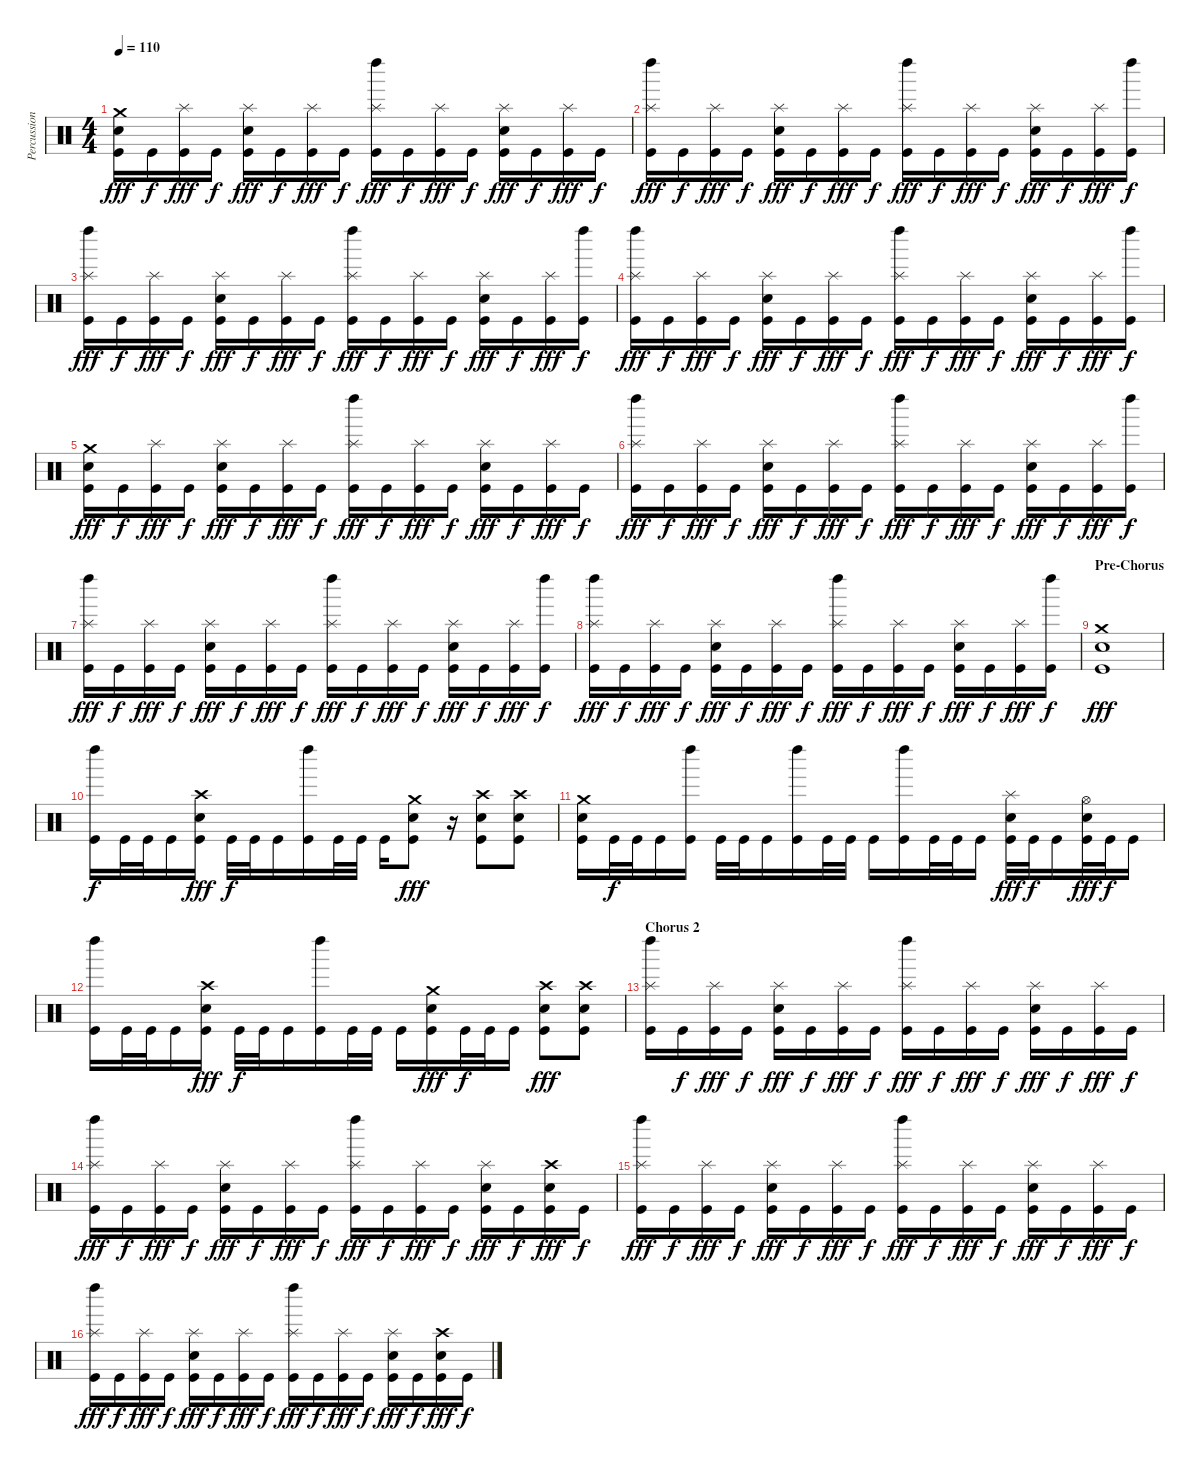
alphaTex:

\track ("Percussions" "Percussion") {instrument percussion}
\staff {score}
\articulation defaults
\ts (4 4)
\tempo 110
\clef neutral
\ks c
("Kick (hit)" "Electric Snare (hit)" "Crash medium (hit)").16{dy fff} "Kick (hit)".16{dy f} ("Kick (hit)" "Splash (hit)").16{dy fff} "Kick (hit)".16{dy f} ("Kick (hit)" "Electric Snare (hit)" "Splash (hit)").16{dy fff} "Kick (hit)".16{dy f} ("Kick (hit)" "Splash (hit)").16{dy fff} "Kick (hit)".16{dy f} ("Kick (hit)" "Left Maraca (hit)" "Splash (hit)").16{dy fff} "Kick (hit)".16{dy f} ("Kick (hit)" "Splash (hit)").16{dy fff} "Kick (hit)".16{dy f} ("Kick (hit)" "Electric Snare (hit)" "Splash (hit)").16{dy fff} "Kick (hit)".16{dy f} ("Kick (hit)" "Splash (hit)").16{dy fff} "Kick (hit)".16{dy f} |
("Kick (hit)" "Left Maraca (hit)" "Splash (hit)").16{dy fff} "Kick (hit)".16{dy f} ("Kick (hit)" "Splash (hit)").16{dy fff} "Kick (hit)".16{dy f} ("Kick (hit)" "Electric Snare (hit)" "Splash (hit)").16{dy fff} "Kick (hit)".16{dy f} ("Kick (hit)" "Splash (hit)").16{dy fff} "Kick (hit)".16{dy f} ("Kick (hit)" "Left Maraca (hit)" "Splash (hit)").16{dy fff} "Kick (hit)".16{dy f} ("Kick (hit)" "Splash (hit)").16{dy fff} "Kick (hit)".16{dy f} ("Kick (hit)" "Electric Snare (hit)" "Splash (hit)").16{dy fff} "Kick (hit)".16{dy f} ("Kick (hit)" "Splash (hit)").16{dy fff} ("Kick (hit)" "Left Maraca (hit)").16{dy f} |
("Kick (hit)" "Left Maraca (hit)" "Splash (hit)").16{dy fff} "Kick (hit)".16{dy f} ("Kick (hit)" "Splash (hit)").16{dy fff} "Kick (hit)".16{dy f} ("Kick (hit)" "Electric Snare (hit)" "Splash (hit)").16{dy fff} "Kick (hit)".16{dy f} ("Kick (hit)" "Splash (hit)").16{dy fff} "Kick (hit)".16{dy f} ("Kick (hit)" "Left Maraca (hit)" "Splash (hit)").16{dy fff} "Kick (hit)".16{dy f} ("Kick (hit)" "Splash (hit)").16{dy fff} "Kick (hit)".16{dy f} ("Kick (hit)" "Electric Snare (hit)" "Splash (hit)").16{dy fff} "Kick (hit)".16{dy f} ("Kick (hit)" "Splash (hit)").16{dy fff} ("Kick (hit)" "Left Maraca (hit)").16{dy f} |
("Kick (hit)" "Left Maraca (hit)" "Splash (hit)").16{dy fff} "Kick (hit)".16{dy f} ("Kick (hit)" "Splash (hit)").16{dy fff} "Kick (hit)".16{dy f} ("Kick (hit)" "Electric Snare (hit)" "Splash (hit)").16{dy fff} "Kick (hit)".16{dy f} ("Kick (hit)" "Splash (hit)").16{dy fff} "Kick (hit)".16{dy f} ("Kick (hit)" "Left Maraca (hit)" "Splash (hit)").16{dy fff} "Kick (hit)".16{dy f} ("Kick (hit)" "Splash (hit)").16{dy fff} "Kick (hit)".16{dy f} ("Kick (hit)" "Electric Snare (hit)" "Splash (hit)").16{dy fff} "Kick (hit)".16{dy f} ("Kick (hit)" "Splash (hit)").16{dy fff} ("Kick (hit)" "Left Maraca (hit)").16{dy f} |
("Kick (hit)" "Electric Snare (hit)" "Crash medium (hit)").16{dy fff} "Kick (hit)".16{dy f} ("Kick (hit)" "Splash (hit)").16{dy fff} "Kick (hit)".16{dy f} ("Kick (hit)" "Electric Snare (hit)" "Splash (hit)").16{dy fff} "Kick (hit)".16{dy f} ("Kick (hit)" "Splash (hit)").16{dy fff} "Kick (hit)".16{dy f} ("Kick (hit)" "Left Maraca (hit)" "Splash (hit)").16{dy fff} "Kick (hit)".16{dy f} ("Kick (hit)" "Splash (hit)").16{dy fff} "Kick (hit)".16{dy f} ("Kick (hit)" "Electric Snare (hit)" "Splash (hit)").16{dy fff} "Kick (hit)".16{dy f} ("Kick (hit)" "Splash (hit)").16{dy fff} "Kick (hit)".16{dy f} |
("Kick (hit)" "Left Maraca (hit)" "Splash (hit)").16{dy fff} "Kick (hit)".16{dy f} ("Kick (hit)" "Splash (hit)").16{dy fff} "Kick (hit)".16{dy f} ("Kick (hit)" "Electric Snare (hit)" "Splash (hit)").16{dy fff} "Kick (hit)".16{dy f} ("Kick (hit)" "Splash (hit)").16{dy fff} "Kick (hit)".16{dy f} ("Kick (hit)" "Left Maraca (hit)" "Splash (hit)").16{dy fff} "Kick (hit)".16{dy f} ("Kick (hit)" "Splash (hit)").16{dy fff} "Kick (hit)".16{dy f} ("Kick (hit)" "Electric Snare (hit)" "Splash (hit)").16{dy fff} "Kick (hit)".16{dy f} ("Kick (hit)" "Splash (hit)").16{dy fff} ("Kick (hit)" "Left Maraca (hit)").16{dy f} |
("Kick (hit)" "Left Maraca (hit)" "Splash (hit)").16{dy fff} "Kick (hit)".16{dy f} ("Kick (hit)" "Splash (hit)").16{dy fff} "Kick (hit)".16{dy f} ("Kick (hit)" "Electric Snare (hit)" "Splash (hit)").16{dy fff} "Kick (hit)".16{dy f} ("Kick (hit)" "Splash (hit)").16{dy fff} "Kick (hit)".16{dy f} ("Kick (hit)" "Left Maraca (hit)" "Splash (hit)").16{dy fff} "Kick (hit)".16{dy f} ("Kick (hit)" "Splash (hit)").16{dy fff} "Kick (hit)".16{dy f} ("Kick (hit)" "Electric Snare (hit)" "Splash (hit)").16{dy fff} "Kick (hit)".16{dy f} ("Kick (hit)" "Splash (hit)").16{dy fff} ("Kick (hit)" "Left Maraca (hit)").16{dy f} |
("Kick (hit)" "Left Maraca (hit)" "Splash (hit)").16{dy fff} "Kick (hit)".16{dy f} ("Kick (hit)" "Splash (hit)").16{dy fff} "Kick (hit)".16{dy f} ("Kick (hit)" "Electric Snare (hit)" "Splash (hit)").16{dy fff} "Kick (hit)".16{dy f} ("Kick (hit)" "Splash (hit)").16{dy fff} "Kick (hit)".16{dy f} ("Kick (hit)" "Left Maraca (hit)" "Splash (hit)").16{dy fff} "Kick (hit)".16{dy f} ("Kick (hit)" "Splash (hit)").16{dy fff} "Kick (hit)".16{dy f} ("Kick (hit)" "Electric Snare (hit)" "Splash (hit)").16{dy fff} "Kick (hit)".16{dy f} ("Kick (hit)" "Splash (hit)").16{dy fff} ("Kick (hit)" "Left Maraca (hit)").16{dy f} |
\section ("" "Pre-Chorus")
("Kick (hit)" "Electric Snare (hit)" "Crash medium (hit)").1{dy fff} |
("Kick (hit)" "Left Maraca (hit)").16{dy f} "Kick (hit)".32 "Kick (hit)".32 "Kick (hit)".16 ("Kick (hit)" "Electric Snare (hit)" "Crash high (hit)").16{dy fff} "Kick (hit)".32{dy f} "Kick (hit)".32 "Kick (hit)".16 ("Kick (hit)" "Left Maraca (hit)").16 "Kick (hit)".32 "Kick (hit)".32 "Kick (hit)".16 ("Kick (hit)" "Electric Snare (hit)" "Crash medium (hit)").8{dy fff} r.16 ("Kick (hit)" "Electric Snare (hit)" "Crash high (hit)").8 ("Kick (hit)" "Electric Snare (hit)" "Crash high (hit)").8 |
("Kick (hit)" "Electric Snare (hit)" "Crash medium (hit)").16 "Kick (hit)".32{dy f} "Kick (hit)".32 "Kick (hit)".16 ("Kick (hit)" "Left Maraca (hit)").16 "Kick (hit)".32 "Kick (hit)".32 "Kick (hit)".16 ("Kick (hit)" "Left Maraca (hit)").16 "Kick (hit)".32 "Kick (hit)".32 "Kick (hit)".16 ("Kick (hit)" "Left Maraca (hit)").16 "Kick (hit)".32 "Kick (hit)".32 "Kick (hit)".16 ("Kick (hit)" "Electric Snare (hit)" "Splash (hit)").32{dy fff} "Kick (hit)".32{dy f} "Kick (hit)".16 ("Kick (hit)" "Electric Snare (hit)" "Hi-Hat (open)").32{dy fff} "Kick (hit)".32{dy f} "Kick (hit)".16 |
("Kick (hit)" "Left Maraca (hit)").16 "Kick (hit)".32 "Kick (hit)".32 "Kick (hit)".16 ("Kick (hit)" "Electric Snare (hit)" "Crash high (hit)").16{dy fff} "Kick (hit)".32{dy f} "Kick (hit)".32 "Kick (hit)".16 ("Kick (hit)" "Left Maraca (hit)").16 "Kick (hit)".32 "Kick (hit)".32 "Kick (hit)".16 ("Kick (hit)" "Electric Snare (hit)" "Crash medium (hit)").16{dy fff} "Kick (hit)".32{dy f} "Kick (hit)".32 "Kick (hit)".16 ("Kick (hit)" "Electric Snare (hit)" "Crash high (hit)").8{dy fff} ("Kick (hit)" "Electric Snare (hit)" "Crash high (hit)").8 |
\section ("" "Chorus 2")
("Kick (hit)" "Splash (hit)" "Left Maraca (hit)").16 "Kick (hit)".16{dy f} ("Kick (hit)" "Splash (hit)").16{dy fff} "Kick (hit)".16{dy f} ("Kick (hit)" "Splash (hit)" "Electric Snare (hit)").16{dy fff} "Kick (hit)".16{dy f} ("Kick (hit)" "Splash (hit)").16{dy fff} "Kick (hit)".16{dy f} ("Kick (hit)" "Splash (hit)" "Left Maraca (hit)").16{dy fff} "Kick (hit)".16{dy f} ("Kick (hit)" "Splash (hit)").16{dy fff} "Kick (hit)".16{dy f} ("Kick (hit)" "Splash (hit)" "Electric Snare (hit)").16{dy fff} "Kick (hit)".16{dy f} ("Kick (hit)" "Splash (hit)").16{dy fff} "Kick (hit)".16{dy f} |
("Kick (hit)" "Splash (hit)" "Left Maraca (hit)").16{dy fff} "Kick (hit)".16{dy f} ("Kick (hit)" "Splash (hit)").16{dy fff} "Kick (hit)".16{dy f} ("Kick (hit)" "Splash (hit)" "Electric Snare (hit)").16{dy fff} "Kick (hit)".16{dy f} ("Kick (hit)" "Splash (hit)").16{dy fff} "Kick (hit)".16{dy f} ("Kick (hit)" "Splash (hit)" "Left Maraca (hit)").16{dy fff} "Kick (hit)".16{dy f} ("Kick (hit)" "Splash (hit)").16{dy fff} "Kick (hit)".16{dy f} ("Kick (hit)" "Splash (hit)" "Electric Snare (hit)").16{dy fff} "Kick (hit)".16{dy f} ("Kick (hit)" "Crash high (hit)" "Electric Snare (hit)").16{dy fff} "Kick (hit)".16{dy f} |
("Kick (hit)" "Splash (hit)" "Left Maraca (hit)").16{dy fff} "Kick (hit)".16{dy f} ("Kick (hit)" "Splash (hit)").16{dy fff} "Kick (hit)".16{dy f} ("Kick (hit)" "Splash (hit)" "Electric Snare (hit)").16{dy fff} "Kick (hit)".16{dy f} ("Kick (hit)" "Splash (hit)").16{dy fff} "Kick (hit)".16{dy f} ("Kick (hit)" "Splash (hit)" "Left Maraca (hit)").16{dy fff} "Kick (hit)".16{dy f} ("Kick (hit)" "Splash (hit)").16{dy fff} "Kick (hit)".16{dy f} ("Kick (hit)" "Splash (hit)" "Electric Snare (hit)").16{dy fff} "Kick (hit)".16{dy f} ("Kick (hit)" "Splash (hit)").16{dy fff} "Kick (hit)".16{dy f} |
("Kick (hit)" "Splash (hit)" "Left Maraca (hit)").16{dy fff} "Kick (hit)".16{dy f} ("Kick (hit)" "Splash (hit)").16{dy fff} "Kick (hit)".16{dy f} ("Kick (hit)" "Splash (hit)" "Electric Snare (hit)").16{dy fff} "Kick (hit)".16{dy f} ("Kick (hit)" "Splash (hit)").16{dy fff} "Kick (hit)".16{dy f} ("Kick (hit)" "Splash (hit)" "Left Maraca (hit)").16{dy fff} "Kick (hit)".16{dy f} ("Kick (hit)" "Splash (hit)").16{dy fff} "Kick (hit)".16{dy f} ("Kick (hit)" "Splash (hit)" "Electric Snare (hit)").16{dy fff} "Kick (hit)".16{dy f} ("Kick (hit)" "Crash high (hit)" "Electric Snare (hit)").16{dy fff} "Kick (hit)".16{dy f}
